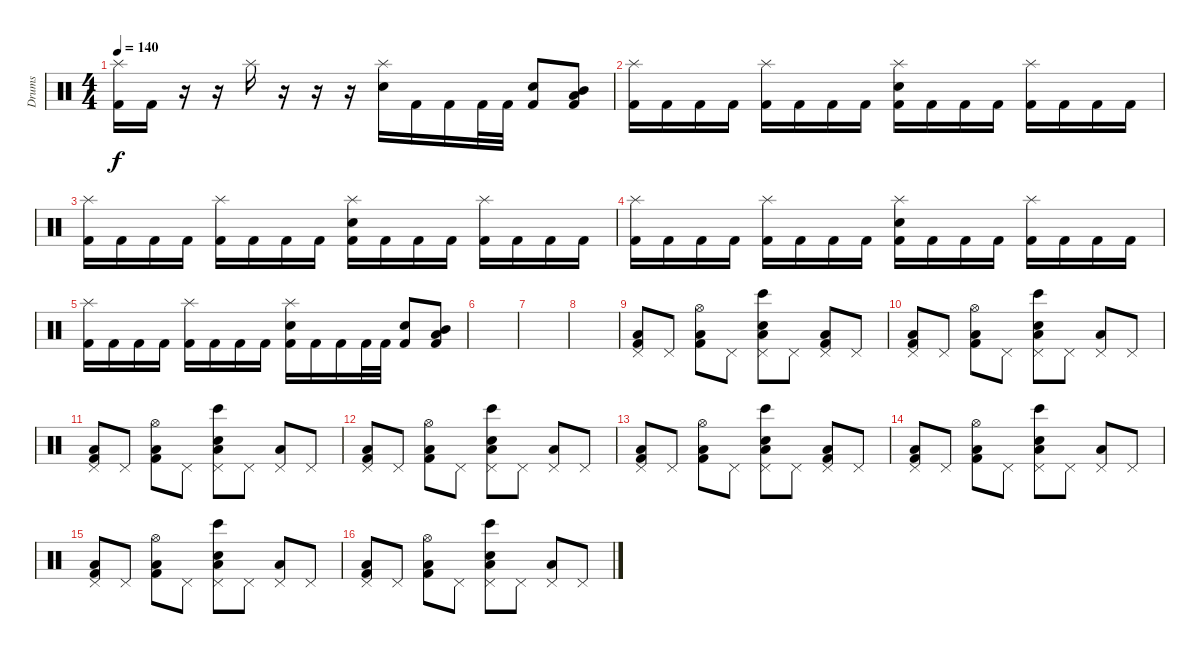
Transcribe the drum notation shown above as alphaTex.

\track ("Drums" "Drums") {instrument percussion}
\staff {score}
\articulation defaults
\ts (4 4)
\tempo 140
\clef neutral
\ks c
("Splash (hit)" "Kick (hit) 2").16{dy f} "Kick (hit) 2".16 r.16 r.16 "Splash (hit)".16 r.16 r.16 r.16 ("Splash (hit)" "Electric Snare (hit)").16 "Kick (hit) 2".16 "Kick (hit) 2".16 "Kick (hit) 2".32 "Kick (hit) 2".32 ("Electric Snare (hit)" "Kick (hit) 2").8 ("Low Tom (hit)" "Mid Tom (hit)" "Kick (hit) 2").8 |
("Splash (hit)" "Kick (hit) 2").16 "Kick (hit) 2".16 "Kick (hit) 2".16 "Kick (hit) 2".16 ("Splash (hit)" "Kick (hit) 2").16 "Kick (hit) 2".16 "Kick (hit) 2".16 "Kick (hit) 2".16 ("Splash (hit)" "Electric Snare (hit)" "Kick (hit) 2").16 "Kick (hit) 2".16 "Kick (hit) 2".16 "Kick (hit) 2".16 ("Splash (hit)" "Kick (hit) 2").16 "Kick (hit) 2".16 "Kick (hit) 2".16 "Kick (hit) 2".16 |
("Splash (hit)" "Kick (hit) 2").16 "Kick (hit) 2".16 "Kick (hit) 2".16 "Kick (hit) 2".16 ("Splash (hit)" "Kick (hit) 2").16 "Kick (hit) 2".16 "Kick (hit) 2".16 "Kick (hit) 2".16 ("Splash (hit)" "Electric Snare (hit)" "Kick (hit) 2").16 "Kick (hit) 2".16 "Kick (hit) 2".16 "Kick (hit) 2".16 ("Splash (hit)" "Kick (hit) 2").16 "Kick (hit) 2".16 "Kick (hit) 2".16 "Kick (hit) 2".16 |
("Splash (hit)" "Kick (hit) 2").16 "Kick (hit) 2".16 "Kick (hit) 2".16 "Kick (hit) 2".16 ("Splash (hit)" "Kick (hit) 2").16 "Kick (hit) 2".16 "Kick (hit) 2".16 "Kick (hit) 2".16 ("Splash (hit)" "Electric Snare (hit)" "Kick (hit) 2").16 "Kick (hit) 2".16 "Kick (hit) 2".16 "Kick (hit) 2".16 ("Splash (hit)" "Kick (hit) 2").16 "Kick (hit) 2".16 "Kick (hit) 2".16 "Kick (hit) 2".16 |
("Splash (hit)" "Kick (hit) 2").16 "Kick (hit) 2".16 "Kick (hit) 2".16 "Kick (hit) 2".16 ("Splash (hit)" "Kick (hit) 2").16 "Kick (hit) 2".16 "Kick (hit) 2".16 "Kick (hit) 2".16 ("Splash (hit)" "Electric Snare (hit)" "Kick (hit) 2").16 "Kick (hit) 2".16 "Kick (hit) 2".16 "Kick (hit) 2".32 "Kick (hit) 2".32 ("Electric Snare (hit)" "Kick (hit) 2").8 ("Low Tom (hit)" "Mid Tom (hit)" "Kick (hit) 2").8 |
|
|
|
("Pedal Hi-Hat (hit)" "Kick (hit) 2" "Low Floor Tom (hit)").8{volume 5} "Pedal Hi-Hat (hit)".8 ("Hi-Hat (open)" "Kick (hit) 2" "Low Floor Tom (hit)").8 "Pedal Hi-Hat (hit)".8 ("Pedal Hi-Hat (hit)" "Hand Clap (hit)" "Bongo High (hit)" "Low Floor Tom (hit)").8 "Pedal Hi-Hat (hit)".8 ("Pedal Hi-Hat (hit)" "Kick (hit) 2" "Low Floor Tom (hit)").8 "Pedal Hi-Hat (hit)".8 |
("Pedal Hi-Hat (hit)" "Kick (hit) 2" "Low Floor Tom (hit)").8 "Pedal Hi-Hat (hit)".8 ("Hi-Hat (open)" "Kick (hit) 2" "Low Floor Tom (hit)").8 "Pedal Hi-Hat (hit)".8 ("Pedal Hi-Hat (hit)" "Hand Clap (hit)" "Bongo High (hit)" "Low Floor Tom (hit)").8 "Pedal Hi-Hat (hit)".8 ("Pedal Hi-Hat (hit)" "Low Floor Tom (hit)").8 "Pedal Hi-Hat (hit)".8 |
("Pedal Hi-Hat (hit)" "Kick (hit) 2" "Low Floor Tom (hit)").8 "Pedal Hi-Hat (hit)".8 ("Hi-Hat (open)" "Kick (hit) 2" "Low Floor Tom (hit)").8 "Pedal Hi-Hat (hit)".8 ("Pedal Hi-Hat (hit)" "Hand Clap (hit)" "Bongo High (hit)" "Low Floor Tom (hit)").8 "Pedal Hi-Hat (hit)".8 ("Pedal Hi-Hat (hit)" "Low Floor Tom (hit)").8 "Pedal Hi-Hat (hit)".8 |
("Pedal Hi-Hat (hit)" "Kick (hit) 2" "Low Floor Tom (hit)").8 "Pedal Hi-Hat (hit)".8 ("Hi-Hat (open)" "Kick (hit) 2" "Low Floor Tom (hit)").8 "Pedal Hi-Hat (hit)".8 ("Pedal Hi-Hat (hit)" "Hand Clap (hit)" "Bongo High (hit)" "Low Floor Tom (hit)").8 "Pedal Hi-Hat (hit)".8 ("Pedal Hi-Hat (hit)" "Low Floor Tom (hit)").8 "Pedal Hi-Hat (hit)".8 |
("Pedal Hi-Hat (hit)" "Kick (hit) 2" "Low Floor Tom (hit)").8{volume 9} "Pedal Hi-Hat (hit)".8 ("Hi-Hat (open)" "Kick (hit) 2" "Low Floor Tom (hit)").8 "Pedal Hi-Hat (hit)".8 ("Pedal Hi-Hat (hit)" "Hand Clap (hit)" "Bongo High (hit)" "Low Floor Tom (hit)").8 "Pedal Hi-Hat (hit)".8 ("Pedal Hi-Hat (hit)" "Kick (hit) 2" "Low Floor Tom (hit)").8 "Pedal Hi-Hat (hit)".8 |
("Pedal Hi-Hat (hit)" "Kick (hit) 2" "Low Floor Tom (hit)").8 "Pedal Hi-Hat (hit)".8 ("Hi-Hat (open)" "Kick (hit) 2" "Low Floor Tom (hit)").8 "Pedal Hi-Hat (hit)".8 ("Pedal Hi-Hat (hit)" "Hand Clap (hit)" "Bongo High (hit)" "Low Floor Tom (hit)").8 "Pedal Hi-Hat (hit)".8 ("Pedal Hi-Hat (hit)" "Low Floor Tom (hit)").8 "Pedal Hi-Hat (hit)".8 |
("Pedal Hi-Hat (hit)" "Kick (hit) 2" "Low Floor Tom (hit)").8 "Pedal Hi-Hat (hit)".8 ("Hi-Hat (open)" "Kick (hit) 2" "Low Floor Tom (hit)").8 "Pedal Hi-Hat (hit)".8 ("Pedal Hi-Hat (hit)" "Hand Clap (hit)" "Bongo High (hit)" "Low Floor Tom (hit)").8 "Pedal Hi-Hat (hit)".8 ("Pedal Hi-Hat (hit)" "Low Floor Tom (hit)").8 "Pedal Hi-Hat (hit)".8 |
("Pedal Hi-Hat (hit)" "Kick (hit) 2" "Low Floor Tom (hit)").8 "Pedal Hi-Hat (hit)".8 ("Hi-Hat (open)" "Kick (hit) 2" "Low Floor Tom (hit)").8 "Pedal Hi-Hat (hit)".8 ("Pedal Hi-Hat (hit)" "Hand Clap (hit)" "Bongo High (hit)" "Low Floor Tom (hit)").8 "Pedal Hi-Hat (hit)".8 ("Pedal Hi-Hat (hit)" "Low Floor Tom (hit)").8 "Pedal Hi-Hat (hit)".8
